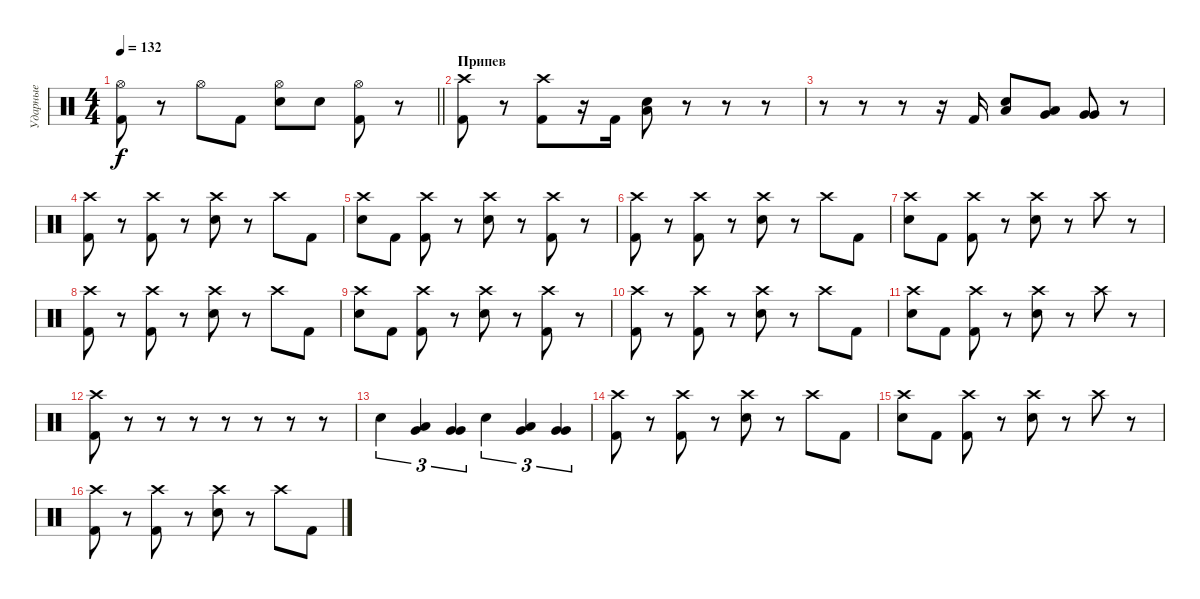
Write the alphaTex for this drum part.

\track ("Ударные" "Ударные") {instrument percussion}
\staff {score}
\articulation defaults
\ts (4 4)
\tempo 132
\clef neutral
\barLineRight lightlight
\ks c
("Kick (hit) 2" "Hi-Hat (open)").8{dy f} r.8 "Hi-Hat (open)".8 "Kick (hit) 2".8 ("Snare (hit) 2" "Hi-Hat (open)").8 "Snare (hit) 2".8 ("Kick (hit) 2" "Hi-Hat (open)").8 r.8 |
\section ("" "Припев")
("Kick (hit) 2" "Crash high (hit)").8 r.8 ("Kick (hit) 2" "Crash high (hit)").8 r.16 "Kick (hit) 2".16 ("Snare (hit) 2" "Low Floor Tom (hit)").8 r.8 r.8 r.8 |
r.8 r.8 r.8 r.16 "Kick (hit) 2".16 ("Snare (hit) 2" "Low Floor Tom (hit)").8 ("Very Low Tom (hit)" "Low Tom (hit)").8 ("Very Low Tom (hit)" "Very Low Tom (hit)").8 r.8 |
("Kick (hit) 2" "Crash high (hit)").8 r.8 ("Kick (hit) 2" "Crash high (hit)").8 r.8 ("Snare (hit) 2" "Crash high (hit)").8 r.8 "Crash high (hit)".8 "Kick (hit) 2".8 |
("Snare (hit) 2" "Crash high (hit)").8 "Kick (hit) 2".8 ("Kick (hit) 2" "Crash high (hit)").8 r.8 ("Snare (hit) 2" "Crash high (hit)").8 r.8 ("Kick (hit) 2" "Crash high (hit)").8 r.8 |
("Kick (hit) 2" "Crash high (hit)").8 r.8 ("Kick (hit) 2" "Crash high (hit)").8 r.8 ("Snare (hit) 2" "Crash high (hit)").8 r.8 "Crash high (hit)".8 "Kick (hit) 2".8 |
("Snare (hit) 2" "Crash high (hit)").8 "Kick (hit) 2".8 ("Kick (hit) 2" "Crash high (hit)").8 r.8 ("Snare (hit) 2" "Crash high (hit)").8 r.8 "Crash high (hit)".8 r.8 |
("Kick (hit) 2" "Crash high (hit)").8 r.8 ("Kick (hit) 2" "Crash high (hit)").8 r.8 ("Snare (hit) 2" "Crash high (hit)").8 r.8 "Crash high (hit)".8 "Kick (hit) 2".8 |
("Snare (hit) 2" "Crash high (hit)").8 "Kick (hit) 2".8 ("Kick (hit) 2" "Crash high (hit)").8 r.8 ("Snare (hit) 2" "Crash high (hit)").8 r.8 ("Kick (hit) 2" "Crash high (hit)").8 r.8 |
("Kick (hit) 2" "Crash high (hit)").8 r.8 ("Kick (hit) 2" "Crash high (hit)").8 r.8 ("Snare (hit) 2" "Crash high (hit)").8 r.8 "Crash high (hit)".8 "Kick (hit) 2".8 |
("Snare (hit) 2" "Crash high (hit)").8 "Kick (hit) 2".8 ("Kick (hit) 2" "Crash high (hit)").8 r.8 ("Snare (hit) 2" "Crash high (hit)").8 r.8 "Crash high (hit)".8 r.8 |
("Kick (hit) 2" "Crash high (hit)").8 r.8 r.8 r.8 r.8 r.8 r.8 r.8 |
"Snare (hit) 2".4{tu (3 2)} ("Very Low Tom (hit)" "Low Tom (hit)").4{tu (3 2)} ("Very Low Tom (hit)" "Very Low Tom (hit)").4{tu (3 2)} "Snare (hit) 2".4{tu (3 2)} ("Very Low Tom (hit)" "Low Tom (hit)").4{tu (3 2)} ("Very Low Tom (hit)" "Very Low Tom (hit)").4{tu (3 2)} |
("Kick (hit) 2" "Crash high (hit)").8 r.8 ("Kick (hit) 2" "Crash high (hit)").8 r.8 ("Snare (hit) 2" "Crash high (hit)").8 r.8 "Crash high (hit)".8 "Kick (hit) 2".8 |
("Snare (hit) 2" "Crash high (hit)").8 "Kick (hit) 2".8 ("Kick (hit) 2" "Crash high (hit)").8 r.8 ("Snare (hit) 2" "Crash high (hit)").8 r.8 "Crash high (hit)".8 r.8 |
("Kick (hit) 2" "Crash high (hit)").8 r.8 ("Kick (hit) 2" "Crash high (hit)").8 r.8 ("Snare (hit) 2" "Crash high (hit)").8 r.8 "Crash high (hit)".8 "Kick (hit) 2".8
